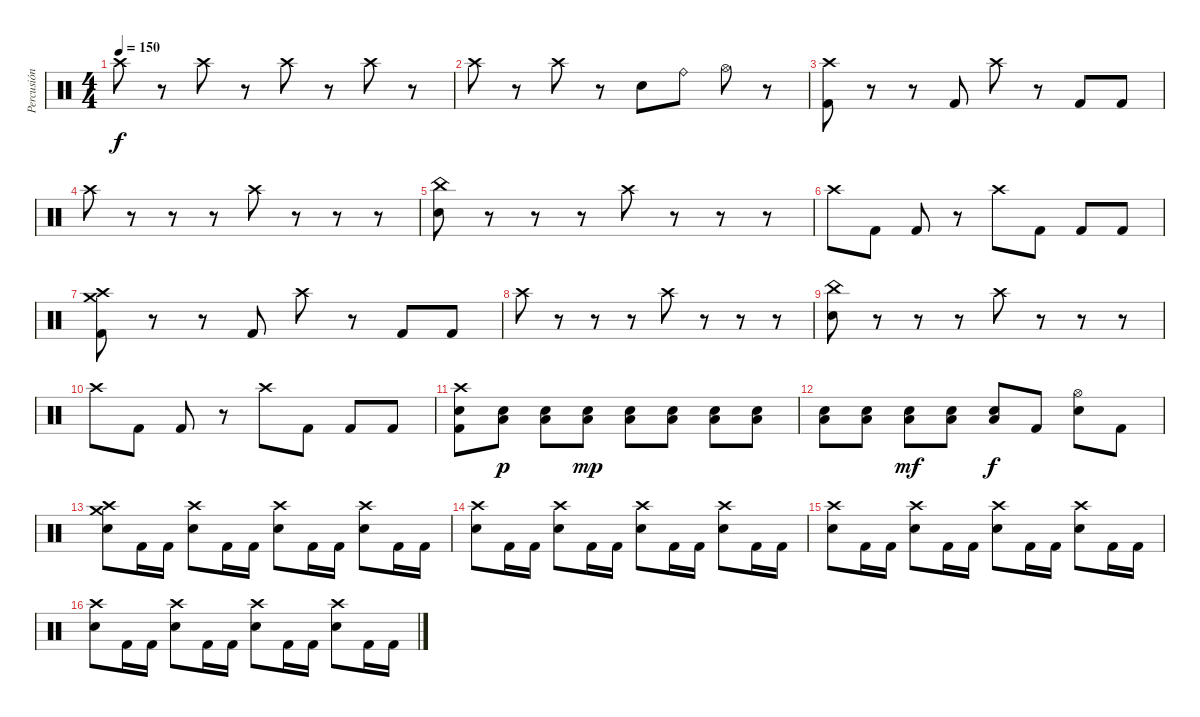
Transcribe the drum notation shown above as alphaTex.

\track ("Percusión" "Percusión") {instrument percussion}
\staff {score}
\articulation defaults
\ts (4 4)
\tempo 150
\clef neutral
\ks c "Crash high (hit)".8{dy f}
r.8 "Crash high (hit)".8 r.8 "Crash high (hit)".8 r.8 "Crash high (hit)".8 r.8 |
"Crash high (hit)".8 r.8 "Crash high (hit)".8 r.8 "Electric Snare (hit)".8 "Ride (bell)".8 "Hi-Hat (open)".8 r.8 |
("Kick (hit) 2" "Crash high (hit)").8 r.8 r.8 "Kick (hit) 2".8 "Crash high (hit)".8 r.8 "Kick (hit) 2".8 "Kick (hit) 2".8 |
"Crash high (hit)".8 r.8 r.8 r.8 "Crash high (hit)".8 r.8 r.8 r.8 |
("Electric Snare (hit)" "China (hit)").8 r.8 r.8 r.8 "Crash high (hit)".8 r.8 r.8 r.8 |
"Crash high (hit)".8 "Kick (hit) 2".8 "Kick (hit) 2".8 r.8 "Crash high (hit)".8 "Kick (hit) 2".8 "Kick (hit) 2".8 "Kick (hit) 2".8 |
("Kick (hit) 2" "Crash medium (hit)" "Crash high (hit)").8 r.8 r.8 "Kick (hit) 2".8 "Crash high (hit)".8 r.8 "Kick (hit) 2".8 "Kick (hit) 2".8 |
"Crash high (hit)".8 r.8 r.8 r.8 "Crash high (hit)".8 r.8 r.8 r.8 |
("Electric Snare (hit)" "China (hit)").8 r.8 r.8 r.8 "Crash high (hit)".8 r.8 r.8 r.8 |
"Crash high (hit)".8 "Kick (hit) 2".8 "Kick (hit) 2".8 r.8 "Crash high (hit)".8 "Kick (hit) 2".8 "Kick (hit) 2".8 "Kick (hit) 2".8 |
("Electric Snare (hit)" "Kick (hit) 2" "Crash high (hit)").8 ("Electric Snare (hit)" "Low Floor Tom (hit)").8{dy p} ("Electric Snare (hit)" "Low Floor Tom (hit)").8 ("Electric Snare (hit)" "Low Floor Tom (hit)").8{dy mp} ("Electric Snare (hit)" "Low Floor Tom (hit)").8 ("Electric Snare (hit)" "Low Floor Tom (hit)").8 ("Electric Snare (hit)" "Low Floor Tom (hit)").8 ("Electric Snare (hit)" "Low Floor Tom (hit)").8 |
("Electric Snare (hit)" "Low Floor Tom (hit)").8 ("Electric Snare (hit)" "Low Floor Tom (hit)").8 ("Electric Snare (hit)" "Low Floor Tom (hit)").8{dy mf} ("Electric Snare (hit)" "Low Floor Tom (hit)").8 ("Electric Snare (hit)" "Low Floor Tom (hit)").8{dy f} "Kick (hit) 2".8 ("Electric Snare (hit)" "Hi-Hat (open)").8 "Kick (hit) 2".8 |
("Electric Snare (hit)" "Crash high (hit)" "Crash medium (hit)").8 "Kick (hit) 2".16 "Kick (hit) 2".16 ("Electric Snare (hit)" "Crash high (hit)").8 "Kick (hit) 2".16 "Kick (hit) 2".16 ("Electric Snare (hit)" "Crash high (hit)").8 "Kick (hit) 2".16 "Kick (hit) 2".16 ("Electric Snare (hit)" "Crash high (hit)").8 "Kick (hit) 2".16 "Kick (hit) 2".16 |
("Electric Snare (hit)" "Crash high (hit)").8 "Kick (hit) 2".16 "Kick (hit) 2".16 ("Electric Snare (hit)" "Crash high (hit)").8 "Kick (hit) 2".16 "Kick (hit) 2".16 ("Electric Snare (hit)" "Crash high (hit)").8 "Kick (hit) 2".16 "Kick (hit) 2".16 ("Electric Snare (hit)" "Crash high (hit)").8 "Kick (hit) 2".16 "Kick (hit) 2".16 |
("Electric Snare (hit)" "Crash high (hit)").8 "Kick (hit) 2".16 "Kick (hit) 2".16 ("Electric Snare (hit)" "Crash high (hit)").8 "Kick (hit) 2".16 "Kick (hit) 2".16 ("Electric Snare (hit)" "Crash high (hit)").8 "Kick (hit) 2".16 "Kick (hit) 2".16 ("Electric Snare (hit)" "Crash high (hit)").8 "Kick (hit) 2".16 "Kick (hit) 2".16 |
("Electric Snare (hit)" "Crash high (hit)").8 "Kick (hit) 2".16 "Kick (hit) 2".16 ("Electric Snare (hit)" "Crash high (hit)").8 "Kick (hit) 2".16 "Kick (hit) 2".16 ("Electric Snare (hit)" "Crash high (hit)").8 "Kick (hit) 2".16 "Kick (hit) 2".16 ("Electric Snare (hit)" "Crash high (hit)").8 "Kick (hit) 2".16 "Kick (hit) 2".16
